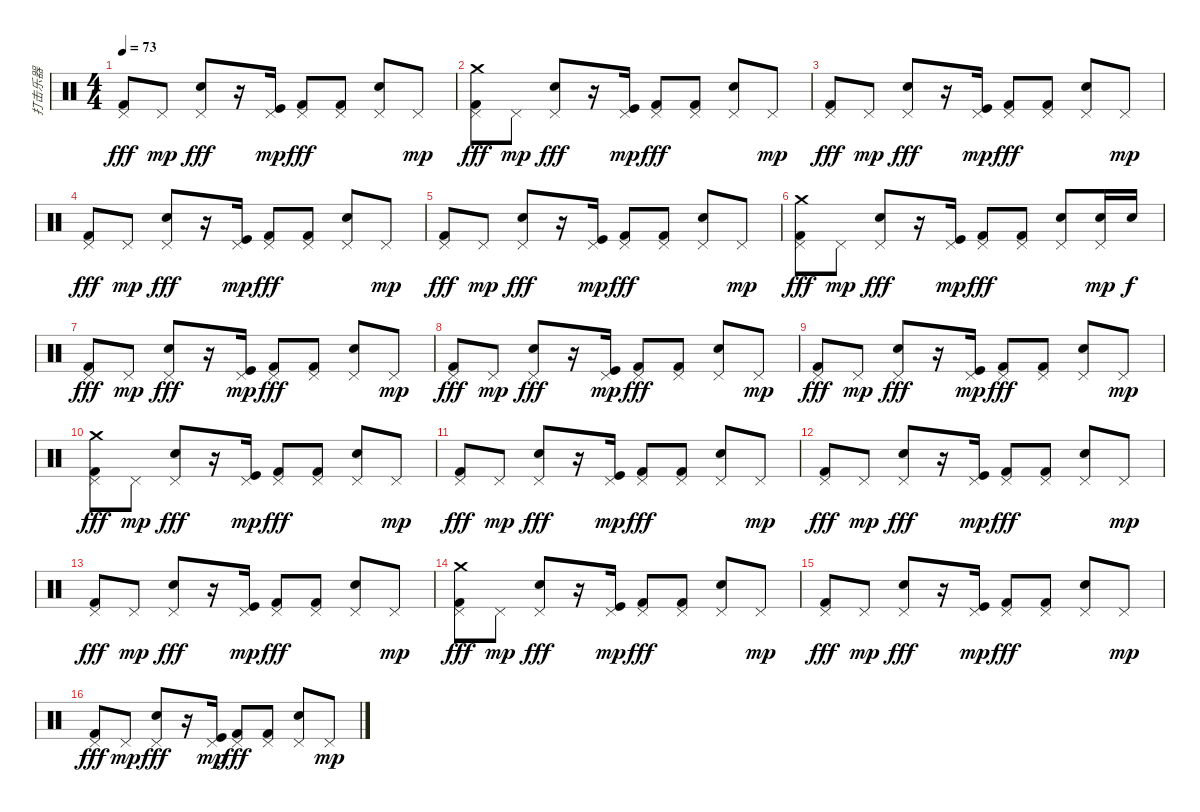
\track ("打击乐器" "打击乐器") {instrument percussion}
\staff {score}
\articulation defaults
\ts (4 4)
\tempo 73
\clef neutral
\ks c
("Pedal Hi-Hat (hit)" "Kick (hit) 2").8{dy fff} "Pedal Hi-Hat (hit)".8{dy mp} ("Pedal Hi-Hat (hit)" "Electric Snare (hit)").8{dy fff} r.16 ("Pedal Hi-Hat (hit)" "Kick (hit)").16{dy mp} ("Pedal Hi-Hat (hit)" "Kick (hit) 2").8{dy fff} ("Pedal Hi-Hat (hit)" "Kick (hit) 2").8 ("Pedal Hi-Hat (hit)" "Electric Snare (hit)").8 "Pedal Hi-Hat (hit)".8{dy mp} |
("Pedal Hi-Hat (hit)" "Kick (hit) 2" "Crash medium (hit)").8{dy fff} "Pedal Hi-Hat (hit)".8{dy mp} ("Pedal Hi-Hat (hit)" "Electric Snare (hit)").8{dy fff} r.16 ("Pedal Hi-Hat (hit)" "Kick (hit)").16{dy mp} ("Pedal Hi-Hat (hit)" "Kick (hit) 2").8{dy fff} ("Pedal Hi-Hat (hit)" "Kick (hit) 2").8 ("Pedal Hi-Hat (hit)" "Electric Snare (hit)").8 "Pedal Hi-Hat (hit)".8{dy mp} |
("Pedal Hi-Hat (hit)" "Kick (hit) 2").8{dy fff} "Pedal Hi-Hat (hit)".8{dy mp} ("Pedal Hi-Hat (hit)" "Electric Snare (hit)").8{dy fff} r.16 ("Pedal Hi-Hat (hit)" "Kick (hit)").16{dy mp} ("Pedal Hi-Hat (hit)" "Kick (hit) 2").8{dy fff} ("Pedal Hi-Hat (hit)" "Kick (hit) 2").8 ("Pedal Hi-Hat (hit)" "Electric Snare (hit)").8 "Pedal Hi-Hat (hit)".8{dy mp} |
("Pedal Hi-Hat (hit)" "Kick (hit) 2").8{dy fff} "Pedal Hi-Hat (hit)".8{dy mp} ("Pedal Hi-Hat (hit)" "Electric Snare (hit)").8{dy fff} r.16 ("Pedal Hi-Hat (hit)" "Kick (hit)").16{dy mp} ("Pedal Hi-Hat (hit)" "Kick (hit) 2").8{dy fff} ("Pedal Hi-Hat (hit)" "Kick (hit) 2").8 ("Pedal Hi-Hat (hit)" "Electric Snare (hit)").8 "Pedal Hi-Hat (hit)".8{dy mp} |
("Pedal Hi-Hat (hit)" "Kick (hit) 2").8{dy fff} "Pedal Hi-Hat (hit)".8{dy mp} ("Pedal Hi-Hat (hit)" "Electric Snare (hit)").8{dy fff} r.16 ("Pedal Hi-Hat (hit)" "Kick (hit)").16{dy mp} ("Pedal Hi-Hat (hit)" "Kick (hit) 2").8{dy fff} ("Pedal Hi-Hat (hit)" "Kick (hit) 2").8 ("Pedal Hi-Hat (hit)" "Electric Snare (hit)").8 "Pedal Hi-Hat (hit)".8{dy mp} |
("Pedal Hi-Hat (hit)" "Kick (hit) 2" "Crash medium (hit)").8{dy fff} "Pedal Hi-Hat (hit)".8{dy mp} ("Pedal Hi-Hat (hit)" "Electric Snare (hit)").8{dy fff} r.16 ("Pedal Hi-Hat (hit)" "Kick (hit)").16{dy mp} ("Pedal Hi-Hat (hit)" "Kick (hit) 2").8{dy fff} ("Pedal Hi-Hat (hit)" "Kick (hit) 2").8 ("Pedal Hi-Hat (hit)" "Electric Snare (hit)").8 ("Pedal Hi-Hat (hit)" "Electric Snare (hit)").16{dy mp} "Electric Snare (hit)".16{dy f} |
("Pedal Hi-Hat (hit)" "Kick (hit) 2").8{dy fff} "Pedal Hi-Hat (hit)".8{dy mp} ("Pedal Hi-Hat (hit)" "Electric Snare (hit)").8{dy fff} r.16 ("Pedal Hi-Hat (hit)" "Kick (hit)").16{dy mp} ("Pedal Hi-Hat (hit)" "Kick (hit) 2").8{dy fff} ("Pedal Hi-Hat (hit)" "Kick (hit) 2").8 ("Pedal Hi-Hat (hit)" "Electric Snare (hit)").8 "Pedal Hi-Hat (hit)".8{dy mp} |
("Pedal Hi-Hat (hit)" "Kick (hit) 2").8{dy fff} "Pedal Hi-Hat (hit)".8{dy mp} ("Pedal Hi-Hat (hit)" "Electric Snare (hit)").8{dy fff} r.16 ("Pedal Hi-Hat (hit)" "Kick (hit)").16{dy mp} ("Pedal Hi-Hat (hit)" "Kick (hit) 2").8{dy fff} ("Pedal Hi-Hat (hit)" "Kick (hit) 2").8 ("Pedal Hi-Hat (hit)" "Electric Snare (hit)").8 "Pedal Hi-Hat (hit)".8{dy mp} |
("Pedal Hi-Hat (hit)" "Kick (hit) 2").8{dy fff} "Pedal Hi-Hat (hit)".8{dy mp} ("Pedal Hi-Hat (hit)" "Electric Snare (hit)").8{dy fff} r.16 ("Pedal Hi-Hat (hit)" "Kick (hit)").16{dy mp} ("Pedal Hi-Hat (hit)" "Kick (hit) 2").8{dy fff} ("Pedal Hi-Hat (hit)" "Kick (hit) 2").8 ("Pedal Hi-Hat (hit)" "Electric Snare (hit)").8 "Pedal Hi-Hat (hit)".8{dy mp} |
("Pedal Hi-Hat (hit)" "Kick (hit) 2" "Crash medium (hit)").8{dy fff} "Pedal Hi-Hat (hit)".8{dy mp} ("Pedal Hi-Hat (hit)" "Electric Snare (hit)").8{dy fff} r.16 ("Pedal Hi-Hat (hit)" "Kick (hit)").16{dy mp} ("Pedal Hi-Hat (hit)" "Kick (hit) 2").8{dy fff} ("Pedal Hi-Hat (hit)" "Kick (hit) 2").8 ("Pedal Hi-Hat (hit)" "Electric Snare (hit)").8 "Pedal Hi-Hat (hit)".8{dy mp} |
("Pedal Hi-Hat (hit)" "Kick (hit) 2").8{dy fff} "Pedal Hi-Hat (hit)".8{dy mp} ("Pedal Hi-Hat (hit)" "Electric Snare (hit)").8{dy fff} r.16 ("Pedal Hi-Hat (hit)" "Kick (hit)").16{dy mp} ("Pedal Hi-Hat (hit)" "Kick (hit) 2").8{dy fff} ("Pedal Hi-Hat (hit)" "Kick (hit) 2").8 ("Pedal Hi-Hat (hit)" "Electric Snare (hit)").8 "Pedal Hi-Hat (hit)".8{dy mp} |
("Pedal Hi-Hat (hit)" "Kick (hit) 2").8{dy fff} "Pedal Hi-Hat (hit)".8{dy mp} ("Pedal Hi-Hat (hit)" "Electric Snare (hit)").8{dy fff} r.16 ("Pedal Hi-Hat (hit)" "Kick (hit)").16{dy mp} ("Pedal Hi-Hat (hit)" "Kick (hit) 2").8{dy fff} ("Pedal Hi-Hat (hit)" "Kick (hit) 2").8 ("Pedal Hi-Hat (hit)" "Electric Snare (hit)").8 "Pedal Hi-Hat (hit)".8{dy mp} |
("Pedal Hi-Hat (hit)" "Kick (hit) 2").8{dy fff} "Pedal Hi-Hat (hit)".8{dy mp} ("Pedal Hi-Hat (hit)" "Electric Snare (hit)").8{dy fff} r.16 ("Pedal Hi-Hat (hit)" "Kick (hit)").16{dy mp} ("Pedal Hi-Hat (hit)" "Kick (hit) 2").8{dy fff} ("Pedal Hi-Hat (hit)" "Kick (hit) 2").8 ("Pedal Hi-Hat (hit)" "Electric Snare (hit)").8 "Pedal Hi-Hat (hit)".8{dy mp} |
("Pedal Hi-Hat (hit)" "Kick (hit) 2" "Crash medium (hit)").8{dy fff} "Pedal Hi-Hat (hit)".8{dy mp} ("Pedal Hi-Hat (hit)" "Electric Snare (hit)").8{dy fff} r.16 ("Pedal Hi-Hat (hit)" "Kick (hit)").16{dy mp} ("Pedal Hi-Hat (hit)" "Kick (hit) 2").8{dy fff} ("Pedal Hi-Hat (hit)" "Kick (hit) 2").8 ("Pedal Hi-Hat (hit)" "Electric Snare (hit)").8 "Pedal Hi-Hat (hit)".8{dy mp} |
("Pedal Hi-Hat (hit)" "Kick (hit) 2").8{dy fff} "Pedal Hi-Hat (hit)".8{dy mp} ("Pedal Hi-Hat (hit)" "Electric Snare (hit)").8{dy fff} r.16 ("Pedal Hi-Hat (hit)" "Kick (hit)").16{dy mp} ("Pedal Hi-Hat (hit)" "Kick (hit) 2").8{dy fff} ("Pedal Hi-Hat (hit)" "Kick (hit) 2").8 ("Pedal Hi-Hat (hit)" "Electric Snare (hit)").8 "Pedal Hi-Hat (hit)".8{dy mp} |
("Pedal Hi-Hat (hit)" "Kick (hit) 2").8{dy fff} "Pedal Hi-Hat (hit)".8{dy mp} ("Pedal Hi-Hat (hit)" "Electric Snare (hit)").8{dy fff} r.16 ("Pedal Hi-Hat (hit)" "Kick (hit)").16{dy mp} ("Pedal Hi-Hat (hit)" "Kick (hit) 2").8{dy fff} ("Pedal Hi-Hat (hit)" "Kick (hit) 2").8 ("Pedal Hi-Hat (hit)" "Electric Snare (hit)").8 "Pedal Hi-Hat (hit)".8{dy mp}
